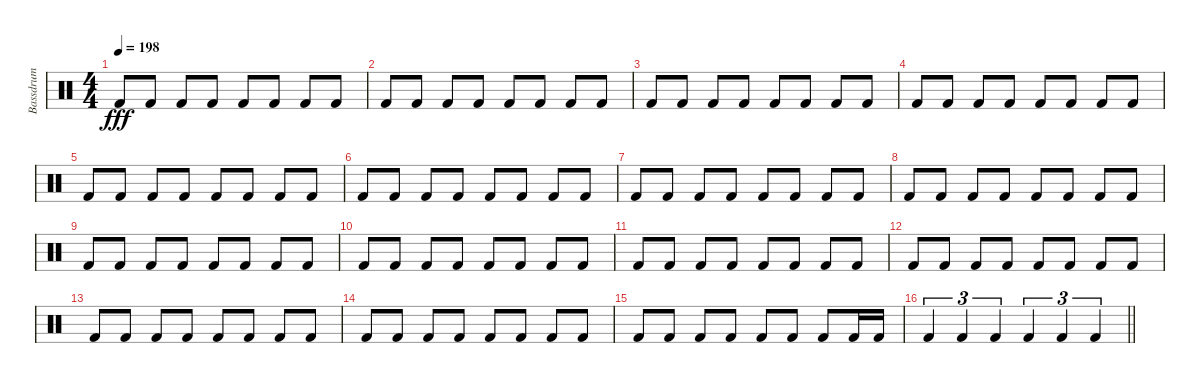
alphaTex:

\track ("Bassdrum" "Bassdrum") {instrument percussion}
\staff {score}
\articulation defaults
\ts (4 4)
\section ("" "")
\tempo 198
\clef neutral
\ks c "Kick (hit) 2".8{dy fff volume 11} "Kick (hit) 2".8 "Kick (hit) 2".8 "Kick (hit) 2".8 "Kick (hit) 2".8 "Kick (hit) 2".8 "Kick (hit) 2".8 "Kick (hit) 2".8
|
"Kick (hit) 2".8 "Kick (hit) 2".8 "Kick (hit) 2".8 "Kick (hit) 2".8 "Kick (hit) 2".8 "Kick (hit) 2".8 "Kick (hit) 2".8 "Kick (hit) 2".8 |
"Kick (hit) 2".8 "Kick (hit) 2".8 "Kick (hit) 2".8 "Kick (hit) 2".8 "Kick (hit) 2".8 "Kick (hit) 2".8 "Kick (hit) 2".8 "Kick (hit) 2".8 |
"Kick (hit) 2".8 "Kick (hit) 2".8 "Kick (hit) 2".8 "Kick (hit) 2".8 "Kick (hit) 2".8 "Kick (hit) 2".8 "Kick (hit) 2".8 "Kick (hit) 2".8 |
"Kick (hit) 2".8{volume 10} "Kick (hit) 2".8 "Kick (hit) 2".8 "Kick (hit) 2".8 "Kick (hit) 2".8 "Kick (hit) 2".8 "Kick (hit) 2".8 "Kick (hit) 2".8 |
"Kick (hit) 2".8 "Kick (hit) 2".8 "Kick (hit) 2".8 "Kick (hit) 2".8 "Kick (hit) 2".8 "Kick (hit) 2".8 "Kick (hit) 2".8 "Kick (hit) 2".8 |
"Kick (hit) 2".8 "Kick (hit) 2".8 "Kick (hit) 2".8 "Kick (hit) 2".8 "Kick (hit) 2".8 "Kick (hit) 2".8 "Kick (hit) 2".8 "Kick (hit) 2".8 |
"Kick (hit) 2".8 "Kick (hit) 2".8 "Kick (hit) 2".8 "Kick (hit) 2".8 "Kick (hit) 2".8 "Kick (hit) 2".8 "Kick (hit) 2".8 "Kick (hit) 2".8 |
"Kick (hit) 2".8{volume 9} "Kick (hit) 2".8 "Kick (hit) 2".8 "Kick (hit) 2".8 "Kick (hit) 2".8 "Kick (hit) 2".8 "Kick (hit) 2".8 "Kick (hit) 2".8 |
"Kick (hit) 2".8 "Kick (hit) 2".8 "Kick (hit) 2".8 "Kick (hit) 2".8 "Kick (hit) 2".8 "Kick (hit) 2".8 "Kick (hit) 2".8 "Kick (hit) 2".8 |
"Kick (hit) 2".8 "Kick (hit) 2".8 "Kick (hit) 2".8 "Kick (hit) 2".8 "Kick (hit) 2".8 "Kick (hit) 2".8 "Kick (hit) 2".8 "Kick (hit) 2".8 |
"Kick (hit) 2".8 "Kick (hit) 2".8 "Kick (hit) 2".8 "Kick (hit) 2".8 "Kick (hit) 2".8 "Kick (hit) 2".8 "Kick (hit) 2".8 "Kick (hit) 2".8 |
"Kick (hit) 2".8{volume 8} "Kick (hit) 2".8 "Kick (hit) 2".8 "Kick (hit) 2".8 "Kick (hit) 2".8 "Kick (hit) 2".8 "Kick (hit) 2".8 "Kick (hit) 2".8 |
"Kick (hit) 2".8 "Kick (hit) 2".8 "Kick (hit) 2".8 "Kick (hit) 2".8 "Kick (hit) 2".8 "Kick (hit) 2".8 "Kick (hit) 2".8 "Kick (hit) 2".8 |
"Kick (hit) 2".8 "Kick (hit) 2".8 "Kick (hit) 2".8 "Kick (hit) 2".8 "Kick (hit) 2".8 "Kick (hit) 2".8 "Kick (hit) 2".8 "Kick (hit) 2".16 "Kick (hit) 2".16 |
\barLineRight lightlight "Kick (hit) 2".4{tu (3 2)} "Kick (hit) 2".4{tu (3 2)} "Kick (hit) 2".4{tu (3 2)} "Kick (hit) 2".4{tu (3 2)} "Kick (hit) 2".4{tu (3 2)} "Kick (hit) 2".4{tu (3 2)}
